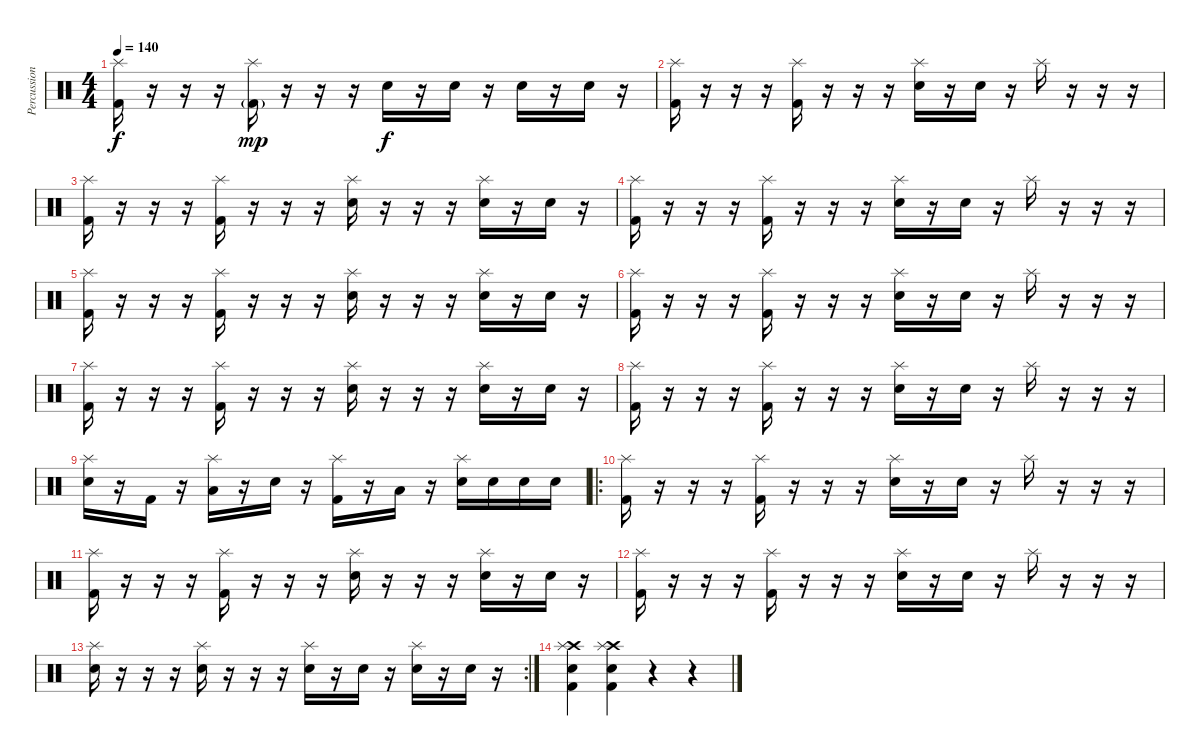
\track ("Percussion" "Percussion") {instrument percussion}
\staff {score}
\articulation defaults
\ts (4 4)
\tempo 140
\clef neutral
\ks c
("Kick (hit) 2" "Splash (hit)").16{dy f} r.16 r.16 r.16 ("Kick (hit) 2"{g} "Splash (hit)").16{dy mp} r.16 r.16 r.16 "Snare (hit) 2".16{dy f} r.16 "Snare (hit) 2".16 r.16 "Snare (hit) 2".16 r.16 "Snare (hit) 2".16 r.16 |
("Kick (hit) 2" "Splash (hit)").16 r.16 r.16 r.16 ("Kick (hit) 2" "Splash (hit)").16 r.16 r.16 r.16 ("Snare (hit) 2" "Splash (hit)").16 r.16 "Snare (hit) 2".16 r.16 "Splash (hit)".16 r.16 r.16 r.16 |
("Kick (hit) 2" "Splash (hit)").16 r.16 r.16 r.16 ("Kick (hit) 2" "Splash (hit)").16 r.16 r.16 r.16 ("Snare (hit) 2" "Splash (hit)").16 r.16 r.16 r.16 ("Snare (hit) 2" "Splash (hit)").16 r.16 "Snare (hit) 2".16 r.16 |
("Kick (hit) 2" "Splash (hit)").16 r.16 r.16 r.16 ("Kick (hit) 2" "Splash (hit)").16 r.16 r.16 r.16 ("Snare (hit) 2" "Splash (hit)").16 r.16 "Snare (hit) 2".16 r.16 "Splash (hit)".16 r.16 r.16 r.16 |
("Kick (hit) 2" "Splash (hit)").16 r.16 r.16 r.16 ("Kick (hit) 2" "Splash (hit)").16 r.16 r.16 r.16 ("Snare (hit) 2" "Splash (hit)").16 r.16 r.16 r.16 ("Snare (hit) 2" "Splash (hit)").16 r.16 "Snare (hit) 2".16 r.16 |
("Kick (hit) 2" "Splash (hit)").16 r.16 r.16 r.16 ("Kick (hit) 2" "Splash (hit)").16 r.16 r.16 r.16 ("Snare (hit) 2" "Splash (hit)").16 r.16 "Snare (hit) 2".16 r.16 "Splash (hit)".16 r.16 r.16 r.16 |
("Kick (hit) 2" "Splash (hit)").16 r.16 r.16 r.16 ("Kick (hit) 2" "Splash (hit)").16 r.16 r.16 r.16 ("Snare (hit) 2" "Splash (hit)").16 r.16 r.16 r.16 ("Snare (hit) 2" "Splash (hit)").16 r.16 "Snare (hit) 2".16 r.16 |
("Kick (hit) 2" "Splash (hit)").16 r.16 r.16 r.16 ("Kick (hit) 2" "Splash (hit)").16 r.16 r.16 r.16 ("Snare (hit) 2" "Splash (hit)").16 r.16 "Snare (hit) 2".16 r.16 "Splash (hit)".16 r.16 r.16 r.16 |
("Snare (hit) 2" "Splash (hit)").16 r.16 "Kick (hit) 2".16 r.16 ("Low Floor Tom (hit)" "Splash (hit)").16 r.16 "Snare (hit) 2".16 r.16 ("Kick (hit) 2" "Splash (hit)").16 r.16 "Low Floor Tom (hit)".16 r.16 ("Snare (hit) 2" "Splash (hit)").16 "Snare (hit) 2".16 "Snare (hit) 2".16 "Snare (hit) 2".16 |
\ro
("Kick (hit) 2" "Splash (hit)").16 r.16 r.16 r.16 ("Kick (hit) 2" "Splash (hit)").16 r.16 r.16 r.16 ("Snare (hit) 2" "Splash (hit)").16 r.16 "Snare (hit) 2".16 r.16 "Splash (hit)".16 r.16 r.16 r.16 |
("Kick (hit) 2" "Splash (hit)").16 r.16 r.16 r.16 ("Kick (hit) 2" "Splash (hit)").16 r.16 r.16 r.16 ("Snare (hit) 2" "Splash (hit)").16 r.16 r.16 r.16 ("Snare (hit) 2" "Splash (hit)").16 r.16 "Snare (hit) 2".16 r.16 |
("Kick (hit) 2" "Splash (hit)").16 r.16 r.16 r.16 ("Kick (hit) 2" "Splash (hit)").16 r.16 r.16 r.16 ("Snare (hit) 2" "Splash (hit)").16 r.16 "Snare (hit) 2".16 r.16 "Splash (hit)".16 r.16 r.16 r.16 |
\rc 2
("Snare (hit) 2" "Splash (hit)").16 r.16 r.16 r.16 ("Snare (hit) 2" "Splash (hit)").16 r.16 r.16 r.16 ("Snare (hit) 2" "Splash (hit)").16 r.16 "Snare (hit) 2".16 r.16 ("Snare (hit) 2" "Splash (hit)").16 r.16 "Snare (hit) 2".16 r.16 |
("Kick (hit) 2" "Snare (hit) 2" "Crash high (hit)" "Splash (hit)").4 ("Kick (hit) 2" "Snare (hit) 2" "Crash high (hit)" "Splash (hit)").4 r.4 r.4
